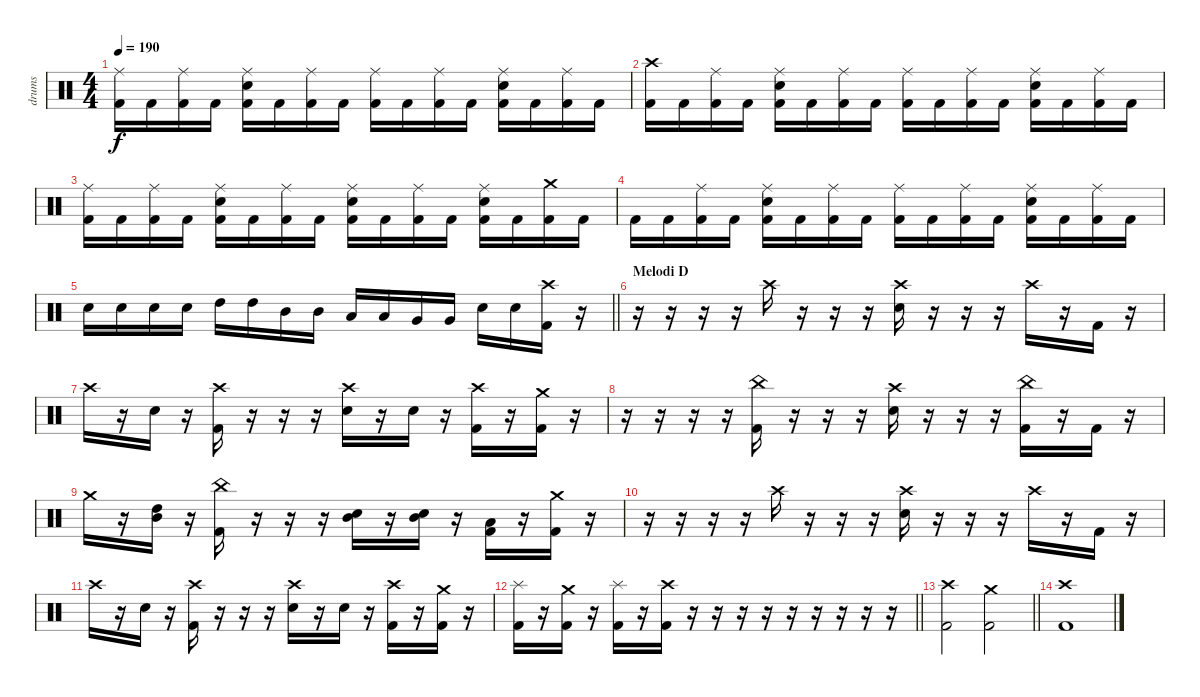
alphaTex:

\track ("drums" "drums") {instrument percussion}
\staff {score}
\articulation defaults
\ts (4 4)
\tempo 190
\clef neutral
\ks c
("Ride (middle)" "Kick (hit) 2").16{dy f} "Kick (hit) 2".16 ("Ride (middle)" "Kick (hit) 2").16 "Kick (hit) 2".16 ("Ride (middle)" "Electric Snare (hit)" "Kick (hit) 2").16 "Kick (hit) 2".16 ("Ride (middle)" "Kick (hit) 2").16 "Kick (hit) 2".16 ("Ride (middle)" "Kick (hit) 2").16 "Kick (hit) 2".16 ("Ride (middle)" "Kick (hit) 2").16 "Kick (hit) 2".16 ("Ride (middle)" "Electric Snare (hit)" "Kick (hit) 2").16 "Kick (hit) 2".16 ("Ride (middle)" "Kick (hit) 2").16 "Kick (hit) 2".16 |
("Crash high (hit)" "Kick (hit) 2").16 "Kick (hit) 2".16 ("Ride (middle)" "Kick (hit) 2").16 "Kick (hit) 2".16 ("Ride (middle)" "Electric Snare (hit)" "Kick (hit) 2").16 "Kick (hit) 2".16 ("Ride (middle)" "Kick (hit) 2").16 "Kick (hit) 2".16 ("Ride (middle)" "Kick (hit) 2").16 "Kick (hit) 2".16 ("Ride (middle)" "Kick (hit) 2").16 "Kick (hit) 2".16 ("Ride (middle)" "Electric Snare (hit)" "Kick (hit) 2").16 "Kick (hit) 2".16 ("Ride (middle)" "Kick (hit) 2").16 "Kick (hit) 2".16 |
("Ride (middle)" "Kick (hit) 2").16 "Kick (hit) 2".16 ("Ride (middle)" "Kick (hit) 2").16 "Kick (hit) 2".16 ("Ride (middle)" "Electric Snare (hit)" "Kick (hit) 2").16 "Kick (hit) 2".16 ("Ride (middle)" "Kick (hit) 2").16 "Kick (hit) 2".16 ("Ride (middle)" "Electric Snare (hit)" "Kick (hit) 2").16 "Kick (hit) 2".16 ("Ride (middle)" "Kick (hit) 2").16 "Kick (hit) 2".16 ("Ride (middle)" "Electric Snare (hit)" "Kick (hit) 2").16 "Kick (hit) 2".16 ("Crash medium (hit)" "Kick (hit) 2").16 "Kick (hit) 2".16 |
"Kick (hit) 2".16 "Kick (hit) 2".16 ("Ride (middle)" "Kick (hit) 2").16 "Kick (hit) 2".16 ("Ride (middle)" "Electric Snare (hit)" "Kick (hit) 2").16 "Kick (hit) 2".16 ("Ride (middle)" "Kick (hit) 2").16 "Kick (hit) 2".16 ("Ride (middle)" "Kick (hit) 2").16 "Kick (hit) 2".16 ("Ride (middle)" "Kick (hit) 2").16 "Kick (hit) 2".16 ("Ride (middle)" "Electric Snare (hit)" "Kick (hit) 2").16 "Kick (hit) 2".16 ("Ride (middle)" "Kick (hit) 2").16 "Kick (hit) 2".16 |
\barLineRight lightlight "Electric Snare (hit)".16 "Electric Snare (hit)".16 "Electric Snare (hit)".16 "Electric Snare (hit)".16 "High Tom (hit)".16 "High Tom (hit)".16 "Mid Tom (hit)".16 "Mid Tom (hit)".16 "Low Tom (hit)".16 "Low Tom (hit)".16 "Very Low Tom (hit)".16 "Very Low Tom (hit)".16 "Electric Snare (hit)".16 "Electric Snare (hit)".16
("Crash high (hit)" "Kick (hit) 2").16 r.16 |
\section ("" "Melodi D")
r.16 r.16 r.16 r.16 "Crash high (hit)".16 r.16 r.16 r.16 ("Crash high (hit)" "Electric Snare (hit)").16 r.16 r.16 r.16 "Crash high (hit)".16 r.16 "Kick (hit) 2".16 r.16 |
"Crash high (hit)".16 r.16 "Electric Snare (hit)".16 r.16 ("Crash high (hit)" "Kick (hit) 2").16 r.16 r.16 r.16 ("Crash high (hit)" "Electric Snare (hit)").16 r.16 "Electric Snare (hit)".16 r.16 ("Crash high (hit)" "Kick (hit) 2").16 r.16 ("Crash medium (hit)" "Kick (hit) 2").16 r.16 |
r.16 r.16 r.16 r.16 ("China (hit)" "Kick (hit) 2").16 r.16 r.16 r.16 ("Crash high (hit)" "Electric Snare (hit)").16 r.16 r.16 r.16 ("China (hit)" "Kick (hit) 2").16 r.16 "Kick (hit) 2".16 r.16 |
"Crash medium (hit)".16 r.16 ("High Tom (hit)" "Mid Tom (hit)").16 r.16 ("China (hit)" "Kick (hit) 2").16 r.16 r.16 r.16 ("Mid Tom (hit)" "Electric Snare (hit)").16 r.16 ("Mid Tom (hit)" "Electric Snare (hit)").16 r.16 ("Low Tom (hit)" "Kick (hit) 2").16 r.16 ("Crash medium (hit)" "Kick (hit) 2").16 r.16 |
r.16 r.16 r.16 r.16 "Crash high (hit)".16 r.16 r.16 r.16 ("Crash high (hit)" "Electric Snare (hit)").16 r.16 r.16 r.16 "Crash high (hit)".16 r.16 "Kick (hit) 2".16 r.16 |
"Crash high (hit)".16 r.16 "Electric Snare (hit)".16 r.16 ("Crash high (hit)" "Kick (hit) 2").16 r.16 r.16 r.16 ("Crash high (hit)" "Electric Snare (hit)").16 r.16 "Electric Snare (hit)".16 r.16 ("Crash high (hit)" "Kick (hit) 2").16 r.16 ("Crash medium (hit)" "Kick (hit) 2").16 r.16 |
\barLineRight lightlight
("Splash (hit)" "Kick (hit) 2").16 r.16 ("Crash medium (hit)" "Kick (hit) 2").16 r.16 ("Splash (hit)" "Kick (hit) 2").16 r.16 ("Crash high (hit)" "Kick (hit) 2").16 r.16 r.16 r.16 r.16 r.16 r.16 r.16 r.16 r.16 |
\barLineRight lightlight
("Crash high (hit)" "Kick (hit) 2").2 ("Crash medium (hit)" "Kick (hit) 2").2 |
("Crash high (hit)" "Kick (hit) 2").1
